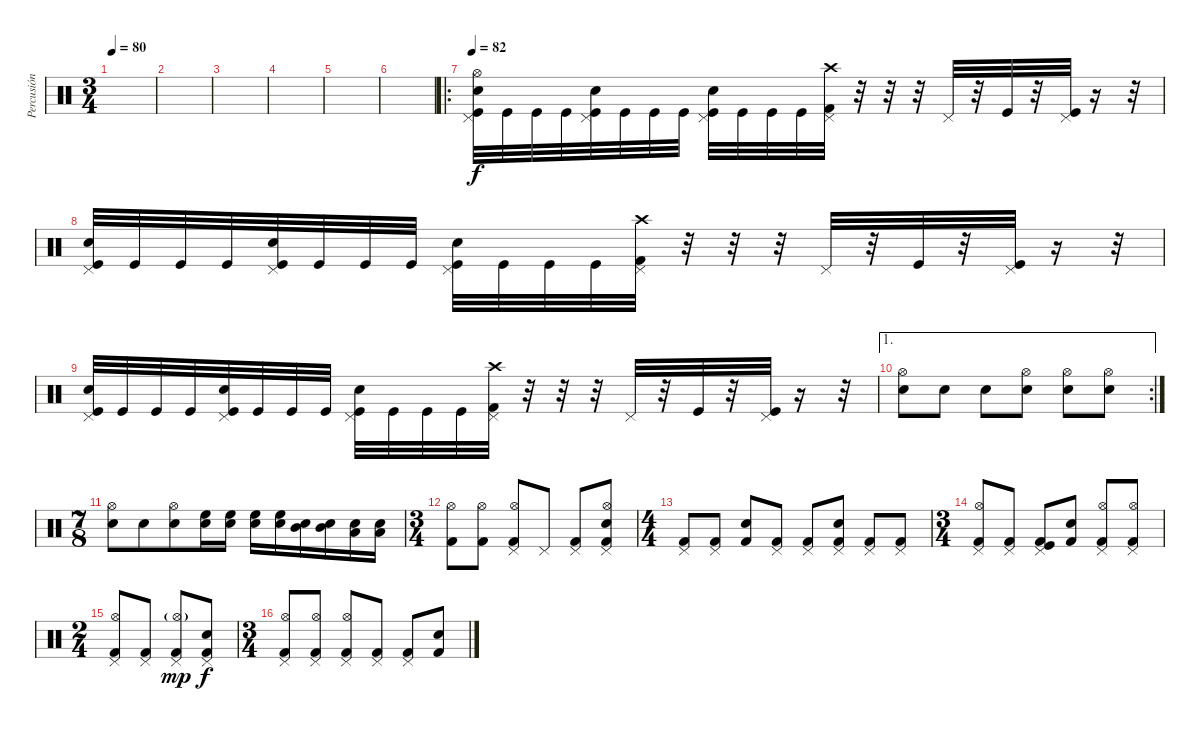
\track ("Percusión" "Percusión") {instrument percussion}
\staff {score}
\articulation defaults
\ts (3 4)
\tempo 80
\clef neutral
\ks c
|
|
|
|
|
|
\ro
\tempo 82
("Kick (hit)" "Snare (hit) 2" "Pedal Hi-Hat (hit)" "Hi-Hat (open)").32 "Kick (hit)".32 "Kick (hit)".32 "Kick (hit)".32 ("Kick (hit)" "Snare (hit) 2" "Pedal Hi-Hat (hit)").32 "Kick (hit)".32 "Kick (hit)".32 "Kick (hit)".32 ("Kick (hit)" "Snare (hit) 2" "Pedal Hi-Hat (hit)").32 "Kick (hit)".32 "Kick (hit)".32 "Kick (hit)".32 ("Kick (hit) 2" "Crash high (hit)" "Pedal Hi-Hat (hit)").32 r.32 r.32 r.32 "Pedal Hi-Hat (hit)".32 r.32 "Kick (hit)".32 r.32 ("Kick (hit)" "Pedal Hi-Hat (hit)").32 r.16 r.32 |
("Kick (hit)" "Snare (hit) 2" "Pedal Hi-Hat (hit)").32 "Kick (hit)".32 "Kick (hit)".32 "Kick (hit)".32 ("Kick (hit)" "Snare (hit) 2" "Pedal Hi-Hat (hit)").32 "Kick (hit)".32 "Kick (hit)".32 "Kick (hit)".32 ("Kick (hit)" "Snare (hit) 2" "Pedal Hi-Hat (hit)").32 "Kick (hit)".32 "Kick (hit)".32 "Kick (hit)".32 ("Kick (hit) 2" "Crash high (hit)" "Pedal Hi-Hat (hit)").32 r.32 r.32 r.32 "Pedal Hi-Hat (hit)".32 r.32 "Kick (hit)".32 r.32 ("Kick (hit)" "Pedal Hi-Hat (hit)").32 r.16 r.32 |
("Kick (hit)" "Snare (hit) 2" "Pedal Hi-Hat (hit)").32 "Kick (hit)".32 "Kick (hit)".32 "Kick (hit)".32 ("Kick (hit)" "Snare (hit) 2" "Pedal Hi-Hat (hit)").32 "Kick (hit)".32 "Kick (hit)".32 "Kick (hit)".32 ("Kick (hit)" "Snare (hit) 2" "Pedal Hi-Hat (hit)").32 "Kick (hit)".32 "Kick (hit)".32 "Kick (hit)".32 ("Kick (hit) 2" "Crash high (hit)" "Pedal Hi-Hat (hit)").32 r.32 r.32 r.32 "Pedal Hi-Hat (hit)".32 r.32 "Kick (hit)".32 r.32 ("Kick (hit)" "Pedal Hi-Hat (hit)").32 r.16 r.32 |
\ae 1
\rc 2
("Snare (hit) 2" "Hi-Hat (open)").8 "Snare (hit) 2".8 "Snare (hit) 2".8 ("Snare (hit) 2" "Hi-Hat (open)").8 ("Snare (hit) 2" "Hi-Hat (open)").8 ("Snare (hit) 2" "Hi-Hat (open)").8 |
\ts (7 8)
("Snare (hit) 2" "Hi-Hat (open)").8 "Snare (hit) 2".8 ("Snare (hit) 2" "Hi-Hat (open)").8 ("High Floor Tom (hit)" "Snare (hit) 2").16 ("High Floor Tom (hit)" "Snare (hit) 2").16 ("High Floor Tom (hit)" "Snare (hit) 2").16 ("High Floor Tom (hit)" "Snare (hit) 2").16 ("Mid Tom (hit)" "Snare (hit) 2").16 ("Mid Tom (hit)" "Snare (hit) 2").16 ("Low Tom (hit)" "Snare (hit) 2").16 ("Low Tom (hit)" "Snare (hit) 2").16 |
\ts (3 4)
("Kick (hit) 2" "Hi-Hat (open)").8 ("Kick (hit) 2" "Hi-Hat (open)").8 ("Pedal Hi-Hat (hit)" "Kick (hit) 2" "Hi-Hat (open)").8 "Pedal Hi-Hat (hit)".8 ("Kick (hit) 2" "Pedal Hi-Hat (hit)").8 ("Kick (hit) 2" "Pedal Hi-Hat (hit)" "Hi-Hat (open)" "Snare (hit) 2").8 |
\ts (4 4)
("Pedal Hi-Hat (hit)" "Kick (hit) 2").8 ("Pedal Hi-Hat (hit)" "Kick (hit) 2").8 ("Electric Snare (hit)" "Kick (hit) 2").8 ("Pedal Hi-Hat (hit)" "Kick (hit) 2").8 ("Pedal Hi-Hat (hit)" "Kick (hit) 2").8 ("Pedal Hi-Hat (hit)" "Snare (hit) 2" "Kick (hit) 2").8 ("Pedal Hi-Hat (hit)" "Kick (hit) 2").8 ("Pedal Hi-Hat (hit)" "Kick (hit) 2").8 |
\ts (3 4)
("Pedal Hi-Hat (hit)" "Hi-Hat (open)" "Kick (hit) 2").8 ("Pedal Hi-Hat (hit)" "Kick (hit) 2").8 ("Pedal Hi-Hat (hit)" "Kick (hit)" "Kick (hit) 2").8 ("Electric Snare (hit)" "Kick (hit) 2").8 ("Pedal Hi-Hat (hit)" "Hi-Hat (open)" "Kick (hit) 2").8 ("Pedal Hi-Hat (hit)" "Hi-Hat (open)" "Kick (hit) 2").8 |
\ts (2 4)
("Pedal Hi-Hat (hit)" "Hi-Hat (open)" "Kick (hit) 2").8 ("Pedal Hi-Hat (hit)" "Kick (hit) 2").8 ("Pedal Hi-Hat (hit)" "Hi-Hat (open)"{g} "Kick (hit) 2").8{dy mp} ("Pedal Hi-Hat (hit)" "Snare (hit) 2" "Kick (hit) 2").8{dy f} |
\ts (3 4)
("Pedal Hi-Hat (hit)" "Hi-Hat (open)" "Kick (hit) 2").8 ("Pedal Hi-Hat (hit)" "Hi-Hat (open)" "Kick (hit) 2").8 ("Pedal Hi-Hat (hit)" "Hi-Hat (open)" "Kick (hit) 2").8 ("Pedal Hi-Hat (hit)" "Kick (hit) 2").8 ("Pedal Hi-Hat (hit)" "Kick (hit) 2").8 ("Snare (hit) 2" "Kick (hit) 2").8
